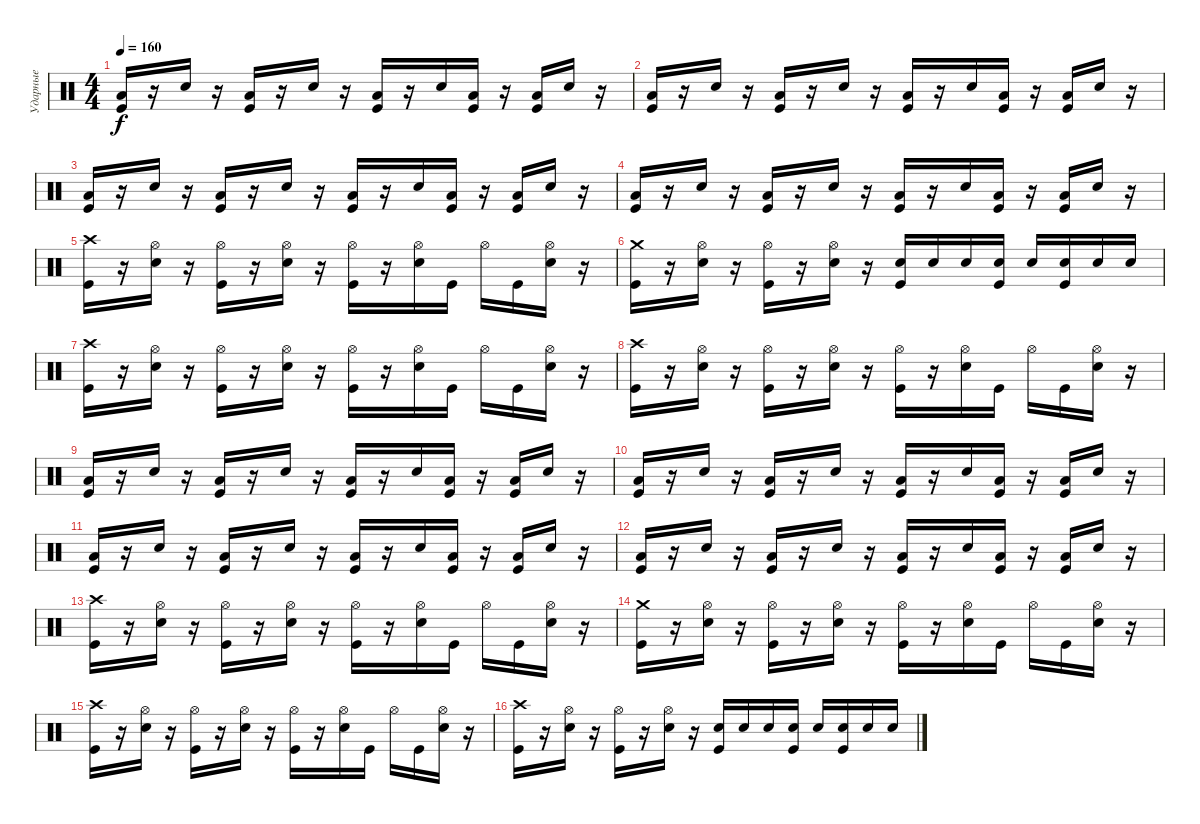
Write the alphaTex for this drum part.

\track ("Ударные" "Ударные") {instrument percussion}
\staff {score}
\articulation defaults
\ts (4 4)
\tempo 160
\clef neutral
\ks c
("Kick (hit)" "Low Floor Tom (hit)").16{dy f} r.16 "Snare (hit) 2".16 r.16 ("Kick (hit)" "Low Floor Tom (hit)").16 r.16 "Snare (hit) 2".16 r.16 ("Kick (hit)" "Low Floor Tom (hit)").16 r.16 "Snare (hit) 2".16 ("Kick (hit)" "Low Floor Tom (hit)").16 r.16 ("Kick (hit)" "Low Floor Tom (hit)").16 "Snare (hit) 2".16 r.16 |
("Kick (hit)" "Low Floor Tom (hit)").16 r.16 "Snare (hit) 2".16 r.16 ("Kick (hit)" "Low Floor Tom (hit)").16 r.16 "Snare (hit) 2".16 r.16 ("Kick (hit)" "Low Floor Tom (hit)").16 r.16 "Snare (hit) 2".16 ("Kick (hit)" "Low Floor Tom (hit)").16 r.16 ("Kick (hit)" "Low Floor Tom (hit)").16 "Snare (hit) 2".16 r.16 |
("Kick (hit)" "Low Floor Tom (hit)").16 r.16 "Snare (hit) 2".16 r.16 ("Kick (hit)" "Low Floor Tom (hit)").16 r.16 "Snare (hit) 2".16 r.16 ("Kick (hit)" "Low Floor Tom (hit)").16 r.16 "Snare (hit) 2".16 ("Kick (hit)" "Low Floor Tom (hit)").16 r.16 ("Kick (hit)" "Low Floor Tom (hit)").16 "Snare (hit) 2".16 r.16 |
("Kick (hit)" "Low Floor Tom (hit)").16 r.16 "Snare (hit) 2".16 r.16 ("Kick (hit)" "Low Floor Tom (hit)").16 r.16 "Snare (hit) 2".16 r.16 ("Kick (hit)" "Low Floor Tom (hit)").16 r.16 "Snare (hit) 2".16 ("Kick (hit)" "Low Floor Tom (hit)").16 r.16 ("Kick (hit)" "Low Floor Tom (hit)").16 "Snare (hit) 2".16 r.16 |
("Kick (hit)" "Crash high (hit)").16 r.16 ("Snare (hit) 2" "Hi-Hat (open)").16 r.16 ("Kick (hit)" "Hi-Hat (open)").16 r.16 ("Snare (hit) 2" "Hi-Hat (open)").16 r.16 ("Kick (hit)" "Hi-Hat (open)").16 r.16 ("Snare (hit) 2" "Hi-Hat (open)").16 "Kick (hit)".16 "Hi-Hat (open)".16 "Kick (hit)".16 ("Snare (hit) 2" "Hi-Hat (open)").16 r.16 |
("Kick (hit)" "Crash medium (hit)").16 r.16 ("Snare (hit) 2" "Hi-Hat (open)").16 r.16 ("Kick (hit)" "Hi-Hat (open)").16 r.16 ("Snare (hit) 2" "Hi-Hat (open)").16 r.16 ("Kick (hit)" "Snare (hit) 2").16 "Snare (hit) 2".16 "Snare (hit) 2".16 ("Kick (hit)" "Snare (hit) 2").16 "Snare (hit) 2".16 ("Kick (hit)" "Snare (hit) 2").16 "Snare (hit) 2".16 "Snare (hit) 2".16 |
("Kick (hit)" "Crash high (hit)").16 r.16 ("Snare (hit) 2" "Hi-Hat (open)").16 r.16 ("Kick (hit)" "Hi-Hat (open)").16 r.16 ("Snare (hit) 2" "Hi-Hat (open)").16 r.16 ("Kick (hit)" "Hi-Hat (open)").16 r.16 ("Snare (hit) 2" "Hi-Hat (open)").16 "Kick (hit)".16 "Hi-Hat (open)".16 "Kick (hit)".16 ("Snare (hit) 2" "Hi-Hat (open)").16 r.16 |
("Kick (hit)" "Crash high (hit)").16 r.16 ("Snare (hit) 2" "Hi-Hat (open)").16 r.16 ("Kick (hit)" "Hi-Hat (open)").16 r.16 ("Snare (hit) 2" "Hi-Hat (open)").16 r.16 ("Kick (hit)" "Hi-Hat (open)").16 r.16 ("Snare (hit) 2" "Hi-Hat (open)").16 "Kick (hit)".16 "Hi-Hat (open)".16 "Kick (hit)".16 ("Snare (hit) 2" "Hi-Hat (open)").16 r.16 |
("Kick (hit)" "Low Floor Tom (hit)").16 r.16 "Snare (hit) 2".16 r.16 ("Kick (hit)" "Low Floor Tom (hit)").16 r.16 "Snare (hit) 2".16 r.16 ("Kick (hit)" "Low Floor Tom (hit)").16 r.16 "Snare (hit) 2".16 ("Kick (hit)" "Low Floor Tom (hit)").16 r.16 ("Kick (hit)" "Low Floor Tom (hit)").16 "Snare (hit) 2".16 r.16 |
("Kick (hit)" "Low Floor Tom (hit)").16 r.16 "Snare (hit) 2".16 r.16 ("Kick (hit)" "Low Floor Tom (hit)").16 r.16 "Snare (hit) 2".16 r.16 ("Kick (hit)" "Low Floor Tom (hit)").16 r.16 "Snare (hit) 2".16 ("Kick (hit)" "Low Floor Tom (hit)").16 r.16 ("Kick (hit)" "Low Floor Tom (hit)").16 "Snare (hit) 2".16 r.16 |
("Kick (hit)" "Low Floor Tom (hit)").16 r.16 "Snare (hit) 2".16 r.16 ("Kick (hit)" "Low Floor Tom (hit)").16 r.16 "Snare (hit) 2".16 r.16 ("Kick (hit)" "Low Floor Tom (hit)").16 r.16 "Snare (hit) 2".16 ("Kick (hit)" "Low Floor Tom (hit)").16 r.16 ("Kick (hit)" "Low Floor Tom (hit)").16 "Snare (hit) 2".16 r.16 |
("Kick (hit)" "Low Floor Tom (hit)").16 r.16 "Snare (hit) 2".16 r.16 ("Kick (hit)" "Low Floor Tom (hit)").16 r.16 "Snare (hit) 2".16 r.16 ("Kick (hit)" "Low Floor Tom (hit)").16 r.16 "Snare (hit) 2".16 ("Kick (hit)" "Low Floor Tom (hit)").16 r.16 ("Kick (hit)" "Low Floor Tom (hit)").16 "Snare (hit) 2".16 r.16 |
("Kick (hit)" "Crash high (hit)").16 r.16 ("Snare (hit) 2" "Hi-Hat (open)").16 r.16 ("Kick (hit)" "Hi-Hat (open)").16 r.16 ("Snare (hit) 2" "Hi-Hat (open)").16 r.16 ("Kick (hit)" "Hi-Hat (open)").16 r.16 ("Snare (hit) 2" "Hi-Hat (open)").16 "Kick (hit)".16 "Hi-Hat (open)".16 "Kick (hit)".16 ("Snare (hit) 2" "Hi-Hat (open)").16 r.16 |
("Kick (hit)" "Crash medium (hit)").16 r.16 ("Snare (hit) 2" "Hi-Hat (open)").16 r.16 ("Kick (hit)" "Hi-Hat (open)").16 r.16 ("Snare (hit) 2" "Hi-Hat (open)").16 r.16 ("Kick (hit)" "Hi-Hat (open)").16 r.16 ("Snare (hit) 2" "Hi-Hat (open)").16 "Kick (hit)".16 "Hi-Hat (open)".16 "Kick (hit)".16 ("Snare (hit) 2" "Hi-Hat (open)").16 r.16 |
("Kick (hit)" "Crash high (hit)").16 r.16 ("Snare (hit) 2" "Hi-Hat (open)").16 r.16 ("Kick (hit)" "Hi-Hat (open)").16 r.16 ("Snare (hit) 2" "Hi-Hat (open)").16 r.16 ("Kick (hit)" "Hi-Hat (open)").16 r.16 ("Snare (hit) 2" "Hi-Hat (open)").16 "Kick (hit)".16 "Hi-Hat (open)".16 "Kick (hit)".16 ("Snare (hit) 2" "Hi-Hat (open)").16 r.16 |
("Kick (hit)" "Crash high (hit)").16 r.16 ("Snare (hit) 2" "Hi-Hat (open)").16 r.16 ("Kick (hit)" "Hi-Hat (open)").16 r.16 ("Snare (hit) 2" "Hi-Hat (open)").16 r.16 ("Kick (hit)" "Snare (hit) 2").16 "Snare (hit) 2".16 "Snare (hit) 2".16 ("Kick (hit)" "Snare (hit) 2").16 "Snare (hit) 2".16 ("Kick (hit)" "Snare (hit) 2").16 "Snare (hit) 2".16 "Snare (hit) 2".16
